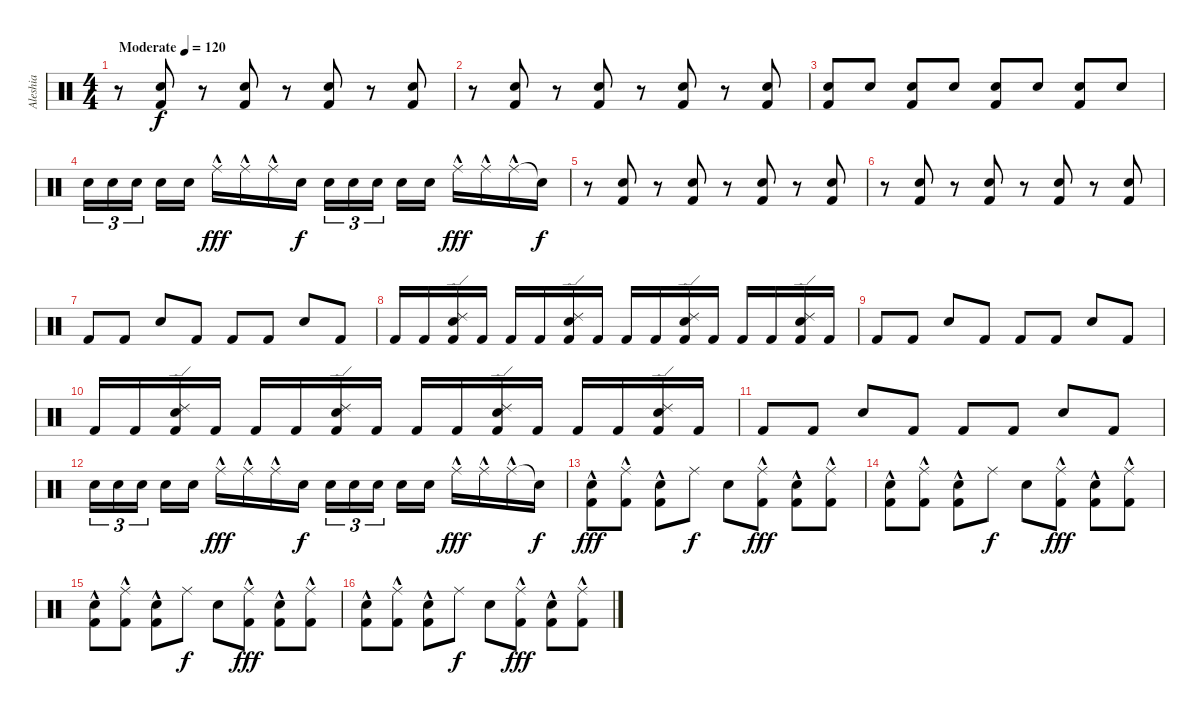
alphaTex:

\track ("Aleshia" "Aleshia") {instrument percussion}
\staff {score}
\articulation defaults
\ts (4 4)
\tempo (120 "Moderate")
\clef neutral
\ks c
r.8{dy f} ("Snare (hit) 2" "Kick (hit) 2").8 r.8 ("Snare (hit) 2" "Kick (hit) 2").8 r.8 ("Snare (hit) 2" "Kick (hit) 2").8 r.8 ("Snare (hit) 2" "Kick (hit) 2").8 |
r.8 ("Snare (hit) 2" "Kick (hit) 2").8 r.8 ("Snare (hit) 2" "Kick (hit) 2").8 r.8 ("Snare (hit) 2" "Kick (hit) 2").8 r.8 ("Snare (hit) 2" "Kick (hit) 2").8 |
("Snare (hit) 2" "Kick (hit) 2").8 "Snare (hit) 2".8 ("Snare (hit) 2" "Kick (hit) 2").8 "Snare (hit) 2".8 ("Snare (hit) 2" "Kick (hit) 2").8 "Snare (hit) 2".8 ("Snare (hit) 2" "Kick (hit) 2").8 "Snare (hit) 2".8 |
"Snare (hit) 2".16{tu (3 2)} "Snare (hit) 2".16{tu (3 2)} "Snare (hit) 2".16{tu (3 2) beam splitsecondary} "Snare (hit) 2".16 "Snare (hit) 2".16 "Ride (middle)"{hac}.16{dy fff} "Ride (middle)"{hac}.16 "Ride (middle)"{hac}.16 "Snare (hit) 2".16{dy f} "Snare (hit) 2".16{tu (3 2)} "Snare (hit) 2".16{tu (3 2)} "Snare (hit) 2".16{tu (3 2) beam splitsecondary} "Snare (hit) 2".16 "Snare (hit) 2".16 "Ride (middle)"{hac}.16{dy fff} "Ride (middle)"{hac}.16 "Ride (middle)"{hac}.16 "Snare (hit)"{t}.16{dy f} |
r.8 ("Snare (hit) 2" "Kick (hit) 2").8 r.8 ("Snare (hit) 2" "Kick (hit) 2").8 r.8 ("Snare (hit) 2" "Kick (hit) 2").8 r.8 ("Snare (hit) 2" "Kick (hit) 2").8 |
r.8 ("Snare (hit) 2" "Kick (hit) 2").8 r.8 ("Snare (hit) 2" "Kick (hit) 2").8 r.8 ("Snare (hit) 2" "Kick (hit) 2").8 r.8 ("Snare (hit) 2" "Kick (hit) 2").8 |
"Kick (hit) 2".8 "Kick (hit) 2".8 "Snare (hit) 2".8 "Kick (hit) 2".8 "Kick (hit) 2".8 "Kick (hit) 2".8 "Snare (hit) 2".8 "Kick (hit) 2".8 |
"Kick (hit) 2".16 "Kick (hit) 2".16 ("Ride (edge) 2" "Snare (hit) 2" "Kick (hit) 2").16 "Kick (hit) 2".16 "Kick (hit) 2".16 "Kick (hit) 2".16 ("Ride (edge) 2" "Snare (hit) 2" "Kick (hit) 2").16 "Kick (hit) 2".16 "Kick (hit) 2".16 "Kick (hit) 2".16 ("Ride (edge) 2" "Snare (hit) 2" "Kick (hit) 2").16 "Kick (hit) 2".16 "Kick (hit) 2".16 "Kick (hit) 2".16 ("Ride (edge) 2" "Snare (hit) 2" "Kick (hit) 2").16 "Kick (hit) 2".16 |
"Kick (hit) 2".8 "Kick (hit) 2".8 "Snare (hit) 2".8 "Kick (hit) 2".8 "Kick (hit) 2".8 "Kick (hit) 2".8 "Snare (hit) 2".8 "Kick (hit) 2".8 |
"Kick (hit) 2".16 "Kick (hit) 2".16 ("Ride (edge) 2" "Snare (hit) 2" "Kick (hit) 2").16 "Kick (hit) 2".16 "Kick (hit) 2".16 "Kick (hit) 2".16 ("Ride (edge) 2" "Snare (hit) 2" "Kick (hit) 2").16 "Kick (hit) 2".16 "Kick (hit) 2".16 "Kick (hit) 2".16 ("Ride (edge) 2" "Snare (hit) 2" "Kick (hit) 2").16 "Kick (hit) 2".16 "Kick (hit) 2".16 "Kick (hit) 2".16 ("Ride (edge) 2" "Snare (hit) 2" "Kick (hit) 2").16 "Kick (hit) 2".16 |
"Kick (hit) 2".8 "Kick (hit) 2".8 "Snare (hit) 2".8 "Kick (hit) 2".8 "Kick (hit) 2".8 "Kick (hit) 2".8 "Snare (hit) 2".8 "Kick (hit) 2".8 |
"Snare (hit) 2".16{tu (3 2)} "Snare (hit) 2".16{tu (3 2)} "Snare (hit) 2".16{tu (3 2) beam splitsecondary} "Snare (hit) 2".16 "Snare (hit) 2".16 "Ride (middle)"{hac}.16{dy fff} "Ride (middle)"{hac}.16 "Ride (middle)"{hac}.16 "Snare (hit) 2".16{dy f} "Snare (hit) 2".16{tu (3 2)} "Snare (hit) 2".16{tu (3 2)} "Snare (hit) 2".16{tu (3 2) beam splitsecondary} "Snare (hit) 2".16 "Snare (hit) 2".16 "Ride (middle)"{hac}.16{dy fff} "Ride (middle)"{hac}.16 "Ride (middle)"{hac}.16 "Snare (hit)"{t}.16{dy f} |
("Snare (hit) 2" "Kick (hit) 2"{hac}).8{dy fff} ("Ride (middle)" "Kick (hit) 2"{hac}).8 ("Snare (hit) 2" "Kick (hit) 2"{hac}).8 "Ride (middle)".8{dy f} "Snare (hit) 2".8 ("Ride (middle)" "Kick (hit) 2"{hac}).8{dy fff} ("Snare (hit) 2" "Kick (hit) 2"{hac}).8 ("Ride (middle)" "Kick (hit) 2"{hac}).8 |
("Snare (hit) 2" "Kick (hit) 2"{hac}).8 ("Ride (middle)" "Kick (hit) 2"{hac}).8 ("Snare (hit) 2" "Kick (hit) 2"{hac}).8 "Ride (middle)".8{dy f} "Snare (hit) 2".8 ("Ride (middle)" "Kick (hit) 2"{hac}).8{dy fff} ("Snare (hit) 2" "Kick (hit) 2"{hac}).8 ("Ride (middle)" "Kick (hit) 2"{hac}).8 |
("Snare (hit) 2" "Kick (hit) 2"{hac}).8 ("Ride (middle)" "Kick (hit) 2"{hac}).8 ("Snare (hit) 2" "Kick (hit) 2"{hac}).8 "Ride (middle)".8{dy f} "Snare (hit) 2".8 ("Ride (middle)" "Kick (hit) 2"{hac}).8{dy fff} ("Snare (hit) 2" "Kick (hit) 2"{hac}).8 ("Ride (middle)" "Kick (hit) 2"{hac}).8 |
("Snare (hit) 2" "Kick (hit) 2"{hac}).8 ("Ride (middle)" "Kick (hit) 2"{hac}).8 ("Snare (hit) 2" "Kick (hit) 2"{hac}).8 "Ride (middle)".8{dy f} "Snare (hit) 2".8 ("Ride (middle)" "Kick (hit) 2"{hac}).8{dy fff} ("Snare (hit) 2" "Kick (hit) 2"{hac}).8 ("Ride (middle)" "Kick (hit) 2"{hac}).8
